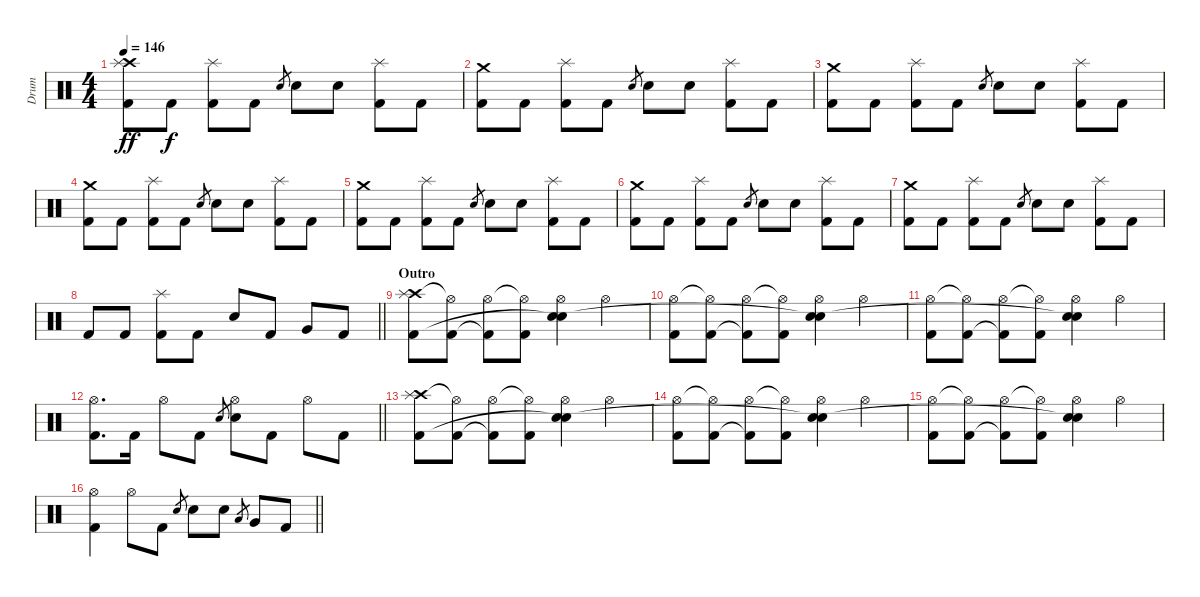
\track ("Drum" "Drum") {instrument percussion}
\staff {score}
\articulation defaults
\ts (4 4)
\tempo 146
\clef neutral
\ks c
("Crash high (hit)" "Splash (hit)" "Kick (hit) 2").8{dy ff} "Kick (hit) 2".8{dy f} ("Splash (hit)" "Kick (hit) 2").8 "Kick (hit) 2".8 "Electric Snare (hit)".8{gr} "Electric Snare (hit)".8 "Electric Snare (hit)".8 ("Splash (hit)" "Kick (hit) 2").8 "Kick (hit) 2".8 |
("Crash medium (hit)" "Kick (hit) 2").8 "Kick (hit) 2".8 ("Splash (hit)" "Kick (hit) 2").8 "Kick (hit) 2".8 "Electric Snare (hit)".8{gr} "Electric Snare (hit)".8 "Electric Snare (hit)".8 ("Splash (hit)" "Kick (hit) 2").8 "Kick (hit) 2".8 |
("Crash medium (hit)" "Kick (hit) 2").8 "Kick (hit) 2".8 ("Splash (hit)" "Kick (hit) 2").8 "Kick (hit) 2".8 "Electric Snare (hit)".8{gr} "Electric Snare (hit)".8 "Electric Snare (hit)".8 ("Splash (hit)" "Kick (hit) 2").8 "Kick (hit) 2".8 |
("Crash medium (hit)" "Kick (hit) 2").8 "Kick (hit) 2".8 ("Splash (hit)" "Kick (hit) 2").8 "Kick (hit) 2".8 "Electric Snare (hit)".8{gr} "Electric Snare (hit)".8 "Electric Snare (hit)".8 ("Splash (hit)" "Kick (hit) 2").8 "Kick (hit) 2".8 |
("Crash medium (hit)" "Kick (hit) 2").8 "Kick (hit) 2".8 ("Splash (hit)" "Kick (hit) 2").8 "Kick (hit) 2".8 "Electric Snare (hit)".8{gr} "Electric Snare (hit)".8 "Electric Snare (hit)".8 ("Splash (hit)" "Kick (hit) 2").8 "Kick (hit) 2".8 |
("Crash medium (hit)" "Kick (hit) 2").8 "Kick (hit) 2".8 ("Splash (hit)" "Kick (hit) 2").8 "Kick (hit) 2".8 "Electric Snare (hit)".8{gr} "Electric Snare (hit)".8 "Electric Snare (hit)".8 ("Splash (hit)" "Kick (hit) 2").8 "Kick (hit) 2".8 |
("Crash medium (hit)" "Kick (hit) 2").8 "Kick (hit) 2".8 ("Splash (hit)" "Kick (hit) 2").8 "Kick (hit) 2".8 "Electric Snare (hit)".8{gr} "Electric Snare (hit)".8 "Electric Snare (hit)".8 ("Splash (hit)" "Kick (hit) 2").8 "Kick (hit) 2".8 |
\barLineRight lightlight "Kick (hit) 2".8 "Kick (hit) 2".8
("Splash (hit)" "Kick (hit) 2").8 "Kick (hit) 2".8 "Electric Snare (hit)".8 "Kick (hit) 2".8 "Very Low Tom (hit)".8 "Kick (hit) 2".8 |
\section ("" "Outro")
("Crash high (hit)" "Splash (hit)" "Kick (hit) 2").8 ("Hi-Hat (open)"{t} "Kick (hit) 2").8 ("Hi-Hat (open)" "Kick (hit) 2"{t}).8 ("Hi-Hat (open)"{t} "Kick (hit) 2").8 ("Hi-Hat (open)" "Electric Snare (hit)" "Snare (hit)"{t}).4 "Hi-Hat (open)".4 |
("Hi-Hat (open)" "Kick (hit) 2").8 ("Hi-Hat (open)"{t} "Kick (hit) 2").8 ("Hi-Hat (open)" "Kick (hit) 2"{t}).8 ("Hi-Hat (open)"{t} "Kick (hit) 2").8 ("Hi-Hat (open)" "Electric Snare (hit)" "Snare (hit)"{t}).4 "Hi-Hat (open)".4 |
("Hi-Hat (open)" "Kick (hit) 2").8 ("Hi-Hat (open)"{t} "Kick (hit) 2").8 ("Hi-Hat (open)" "Kick (hit) 2"{t}).8 ("Hi-Hat (open)"{t} "Kick (hit) 2").8 ("Hi-Hat (open)" "Electric Snare (hit)" "Snare (hit)"{t}).4 "Hi-Hat (open)".4 |
\barLineRight lightlight
("Hi-Hat (open)" "Kick (hit) 2").8{d} "Kick (hit) 2".16 "Hi-Hat (open)".8 "Kick (hit) 2".8 "Electric Snare (hit)".8{gr} ("Hi-Hat (open)" "Electric Snare (hit)").8 "Kick (hit) 2".8 "Hi-Hat (open)".8 "Kick (hit) 2".8 |
("Crash high (hit)" "Splash (hit)" "Kick (hit) 2").8 ("Hi-Hat (open)"{t} "Kick (hit) 2").8 ("Hi-Hat (open)" "Kick (hit) 2"{t}).8 ("Hi-Hat (open)"{t} "Kick (hit) 2").8 ("Hi-Hat (open)" "Electric Snare (hit)" "Snare (hit)"{t}).4 "Hi-Hat (open)".4 |
("Hi-Hat (open)" "Kick (hit) 2").8 ("Hi-Hat (open)"{t} "Kick (hit) 2").8 ("Hi-Hat (open)" "Kick (hit) 2"{t}).8 ("Hi-Hat (open)"{t} "Kick (hit) 2").8 ("Hi-Hat (open)" "Electric Snare (hit)" "Snare (hit)"{t}).4 "Hi-Hat (open)".4 |
("Hi-Hat (open)" "Kick (hit) 2").8 ("Hi-Hat (open)"{t} "Kick (hit) 2").8 ("Hi-Hat (open)" "Kick (hit) 2"{t}).8 ("Hi-Hat (open)"{t} "Kick (hit) 2").8 ("Hi-Hat (open)" "Electric Snare (hit)" "Snare (hit)"{t}).4 "Hi-Hat (open)".4 |
\barLineRight lightlight
("Hi-Hat (open)" "Kick (hit) 2").4 "Hi-Hat (open)".8 "Kick (hit) 2".8 "Electric Snare (hit)".8{gr} "Electric Snare (hit)".8 "Electric Snare (hit)".8 "Low Floor Tom (hit)".8{gr} "Very Low Tom (hit)".8 "Kick (hit) 2".8
